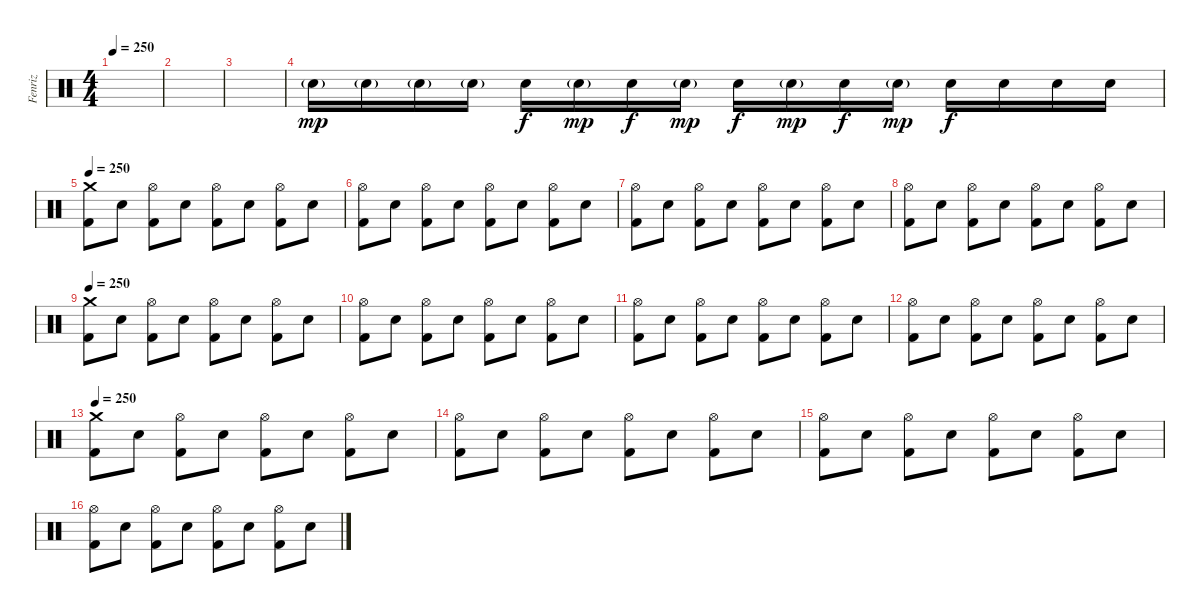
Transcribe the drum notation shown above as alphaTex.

\track ("Fenriz" "Fenriz") {instrument percussion}
\staff {score}
\articulation defaults
\ts (4 4)
\tempo 250
\clef neutral
\ks c
|
|
|
"Electric Snare (hit)"{g}.16{dy mp} "Electric Snare (hit)"{g}.16 "Electric Snare (hit)"{g}.16 "Electric Snare (hit)"{g}.16 "Electric Snare (hit)".16{dy f} "Electric Snare (hit)"{g}.16{dy mp} "Electric Snare (hit)".16{dy f} "Electric Snare (hit)"{g}.16{dy mp} "Electric Snare (hit)".16{dy f} "Electric Snare (hit)"{g}.16{dy mp} "Electric Snare (hit)".16{dy f} "Electric Snare (hit)"{g}.16{dy mp} "Electric Snare (hit)".16{dy f} "Electric Snare (hit)".16 "Electric Snare (hit)".16 "Electric Snare (hit)".16 |
\tempo 250
("Crash medium (hit)" "Kick (hit) 2").8 "Electric Snare (hit)".8 ("Hi-Hat (open)" "Kick (hit) 2").8 "Electric Snare (hit)".8 ("Hi-Hat (open)" "Kick (hit) 2").8 "Electric Snare (hit)".8 ("Hi-Hat (open)" "Kick (hit) 2").8 "Electric Snare (hit)".8 |
("Hi-Hat (open)" "Kick (hit) 2").8 "Electric Snare (hit)".8 ("Hi-Hat (open)" "Kick (hit) 2").8 "Electric Snare (hit)".8 ("Hi-Hat (open)" "Kick (hit) 2").8 "Electric Snare (hit)".8 ("Hi-Hat (open)" "Kick (hit) 2").8 "Electric Snare (hit)".8 |
("Hi-Hat (open)" "Kick (hit) 2").8 "Electric Snare (hit)".8 ("Hi-Hat (open)" "Kick (hit) 2").8 "Electric Snare (hit)".8 ("Hi-Hat (open)" "Kick (hit) 2").8 "Electric Snare (hit)".8 ("Hi-Hat (open)" "Kick (hit) 2").8 "Electric Snare (hit)".8 |
("Hi-Hat (open)" "Kick (hit) 2").8 "Electric Snare (hit)".8 ("Hi-Hat (open)" "Kick (hit) 2").8 "Electric Snare (hit)".8 ("Hi-Hat (open)" "Kick (hit) 2").8 "Electric Snare (hit)".8 ("Hi-Hat (open)" "Kick (hit) 2").8 "Electric Snare (hit)".8 |
\tempo 250
("Crash medium (hit)" "Kick (hit) 2").8 "Electric Snare (hit)".8 ("Hi-Hat (open)" "Kick (hit) 2").8 "Electric Snare (hit)".8 ("Hi-Hat (open)" "Kick (hit) 2").8 "Electric Snare (hit)".8 ("Hi-Hat (open)" "Kick (hit) 2").8 "Electric Snare (hit)".8 |
("Hi-Hat (open)" "Kick (hit) 2").8 "Electric Snare (hit)".8 ("Hi-Hat (open)" "Kick (hit) 2").8 "Electric Snare (hit)".8 ("Hi-Hat (open)" "Kick (hit) 2").8 "Electric Snare (hit)".8 ("Hi-Hat (open)" "Kick (hit) 2").8 "Electric Snare (hit)".8 |
("Hi-Hat (open)" "Kick (hit) 2").8 "Electric Snare (hit)".8 ("Hi-Hat (open)" "Kick (hit) 2").8 "Electric Snare (hit)".8 ("Hi-Hat (open)" "Kick (hit) 2").8 "Electric Snare (hit)".8 ("Hi-Hat (open)" "Kick (hit) 2").8 "Electric Snare (hit)".8 |
("Hi-Hat (open)" "Kick (hit) 2").8 "Electric Snare (hit)".8 ("Hi-Hat (open)" "Kick (hit) 2").8 "Electric Snare (hit)".8 ("Hi-Hat (open)" "Kick (hit) 2").8 "Electric Snare (hit)".8 ("Hi-Hat (open)" "Kick (hit) 2").8 "Electric Snare (hit)".8 |
\tempo 250
("Crash medium (hit)" "Kick (hit) 2").8 "Electric Snare (hit)".8 ("Hi-Hat (open)" "Kick (hit) 2").8 "Electric Snare (hit)".8 ("Hi-Hat (open)" "Kick (hit) 2").8 "Electric Snare (hit)".8 ("Hi-Hat (open)" "Kick (hit) 2").8 "Electric Snare (hit)".8 |
("Hi-Hat (open)" "Kick (hit) 2").8 "Electric Snare (hit)".8 ("Hi-Hat (open)" "Kick (hit) 2").8 "Electric Snare (hit)".8 ("Hi-Hat (open)" "Kick (hit) 2").8 "Electric Snare (hit)".8 ("Hi-Hat (open)" "Kick (hit) 2").8 "Electric Snare (hit)".8 |
("Hi-Hat (open)" "Kick (hit) 2").8 "Electric Snare (hit)".8 ("Hi-Hat (open)" "Kick (hit) 2").8 "Electric Snare (hit)".8 ("Hi-Hat (open)" "Kick (hit) 2").8 "Electric Snare (hit)".8 ("Hi-Hat (open)" "Kick (hit) 2").8 "Electric Snare (hit)".8 |
("Hi-Hat (open)" "Kick (hit) 2").8 "Electric Snare (hit)".8 ("Hi-Hat (open)" "Kick (hit) 2").8 "Electric Snare (hit)".8 ("Hi-Hat (open)" "Kick (hit) 2").8 "Electric Snare (hit)".8 ("Hi-Hat (open)" "Kick (hit) 2").8 "Electric Snare (hit)".8
